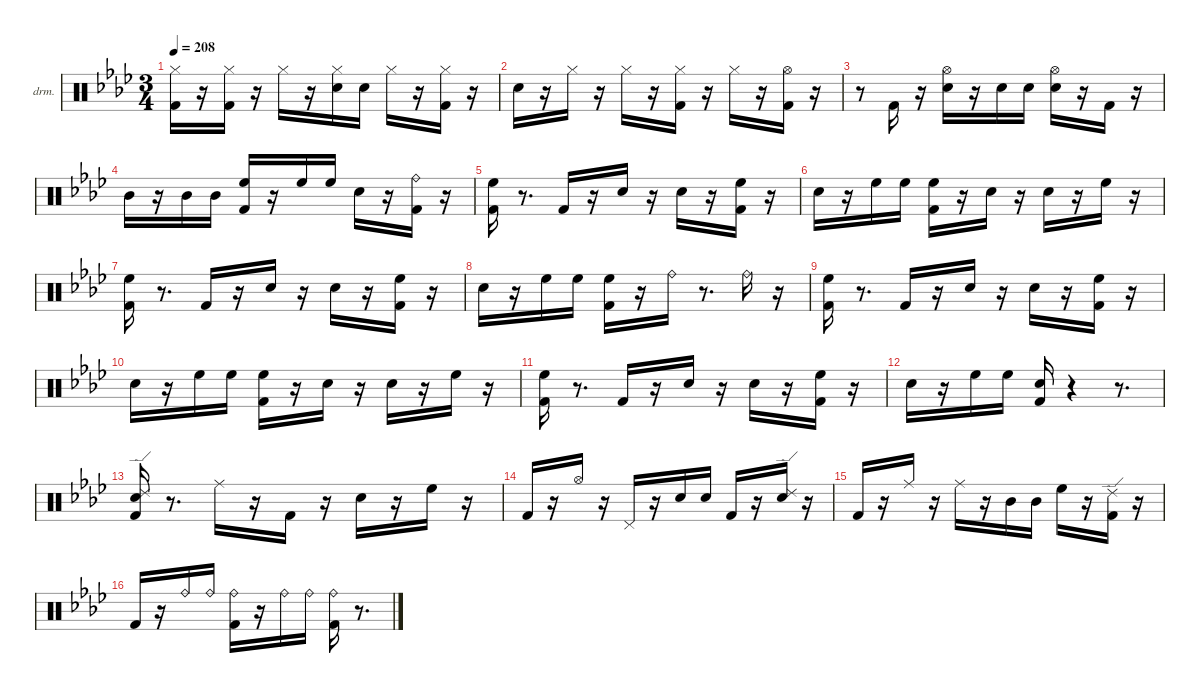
\hideDynamics
\bracketExtendMode nobrackets
\firstSystemTrackNameOrientation horizontal
\otherSystemsTrackNameOrientation horizontal
\track ("EZdrummer 3" "drm.") {instrument percussion}
\staff {score}
\articulation defaults
\ts (3 4)
\tempo 208
\clef neutral
\ks fminor
("Kick (hit) 2"{acc forcenatural} "Hi-Hat (closed)"{acc b}).16{dy ff beam Down} r.16{beam Down} ("Kick (hit) 2"{acc forcenatural} "Hi-Hat (closed)"{acc b}).16{beam Down} r.16{beam Down} "Hi-Hat (closed)"{acc b}.16{dy pp beam Down} r.16{beam Down} ("Snare (hit) 2"{acc forcenatural} "Hi-Hat (closed)"{acc b}).16{dy mf beam Down} "Snare (hit) 2"{acc forcenatural}.16{dy ppp beam Down} "Hi-Hat (closed)"{acc b}.16{dy mf beam Down} r.16{beam Down} ("Kick (hit) 2"{acc forcenatural} "Hi-Hat (closed)"{acc b}).16{dy ff beam Down} r.16{beam Down} |
"Snare (hit) 2"{acc forcenatural}.16{dy fff beam Down} r.16{beam Down} "Hi-Hat (closed)"{acc b}.16{dy mf beam Down} r.16{beam Down} "Hi-Hat (closed)"{acc b}.16{dy fff beam Down} r.16{beam Down} ("Kick (hit) 2"{acc forcenatural} "Hi-Hat (closed)"{acc b}).16{dy ff beam Down} r.16{beam Down} "Hi-Hat (closed)"{acc b}.16{dy fff beam Down} r.16{beam Down} ("Kick (hit) 2"{acc forcenatural} "Hi-Hat (open)"{acc b}).16{dy f beam Down} r.16{beam Down} |
r.8{beam Down} "Kick (hit) 2"{acc forcenatural}.16{dy mf beam Up} r.16{beam Up} ("Snare (hit) 2"{acc forcenatural} "Hi-Hat (open)"{acc b}).16{dy ff beam Down} r.16{beam Down} "Snare (hit) 2"{acc forcenatural}.16{dy pp beam Down} "Snare (hit) 2"{acc forcenatural}.16{dy ppp beam Down} ("Snare (hit) 2"{acc forcenatural} "Hi-Hat (open)"{acc b}).16{dy fff beam Down} r.16{beam Down} "Kick (hit) 2"{acc forcenatural}.16{dy ff beam Up} r.16{beam Up} |
"Mid Tom (hit)"{acc forcenatural}.16{beam Down} r.16{beam Down} "Mid Tom (hit)"{acc forcenatural}.16{beam Up} "Mid Tom (hit)"{acc forcenatural}.16{beam Up} ("Kick (hit) 2"{acc forcenatural} "High Floor Tom (hit)"{acc forcenatural}).16{beam Up} r.16{beam Up} "High Floor Tom (hit)"{acc forcenatural}.16{dy mf beam Down} "High Floor Tom (hit)"{acc forcenatural}.16{dy mp beam Down} "Snare (hit) 2"{acc forcenatural}.16{dy ff beam Down} r.16{beam Down} ("Kick (hit) 2"{acc forcenatural} "Ride (bell)"{acc forcenatural}).16{dy mp beam Down} r.16{beam Down} |
("Kick (hit) 2"{acc forcenatural} "High Floor Tom (hit)"{acc forcenatural}).16{dy fff beam Down} r.8{d beam Down} "Kick (hit) 2"{acc forcenatural}.16{dy f beam Up} r.16{beam Up} "Snare (hit) 2"{acc forcenatural}.16{beam Down} r.16{beam Down} "Snare (hit) 2"{acc forcenatural}.16{dy ppp beam Down} r.16{beam Down} ("Kick (hit) 2"{acc forcenatural} "High Floor Tom (hit)"{acc forcenatural}).16{dy ff beam Down} r.16{beam Down} |
"Snare (hit) 2"{acc forcenatural}.16{beam Down} r.16{beam Down} "High Floor Tom (hit)"{acc forcenatural}.16{dy f beam Down} "High Floor Tom (hit)"{acc forcenatural}.16{dy mp beam Down} ("Kick (hit) 2"{acc forcenatural} "High Floor Tom (hit)"{acc forcenatural}).16{dy ff beam Down} r.16{beam Down} "Snare (hit) 2"{acc forcenatural}.16{dy f beam Down} r.16{beam Down} "Snare (hit) 2"{acc forcenatural}.16{dy ppp beam Down} r.16{beam Down} "High Floor Tom (hit)"{acc forcenatural}.16{dy mf beam Down} r.16{beam Down} |
("Kick (hit) 2"{acc forcenatural} "High Floor Tom (hit)"{acc forcenatural}).16{dy ff beam Down} r.8{d beam Down} "Kick (hit) 2"{acc forcenatural}.16{dy f beam Up} r.16{beam Up} "Snare (hit) 2"{acc forcenatural}.16{beam Down} r.16{beam Down} "Snare (hit) 2"{acc forcenatural}.16{dy ppp beam Down} r.16{beam Down} ("Kick (hit) 2"{acc forcenatural} "High Floor Tom (hit)"{acc forcenatural}).16{dy ff beam Down} r.16{beam Down} |
"Snare (hit) 2"{acc forcenatural}.16{beam Down} r.16{beam Down} "High Floor Tom (hit)"{acc forcenatural}.16{dy f beam Down} "High Floor Tom (hit)"{acc forcenatural}.16{dy mp beam Down} ("Kick (hit) 2"{acc forcenatural} "High Floor Tom (hit)"{acc forcenatural}).16{dy ff beam Down} r.16{beam Down} "Ride (bell)"{acc forcenatural}.16{beam Down} r.8{d beam Down} "Ride (bell)"{acc forcenatural}.16{dy f beam Down} r.16{beam Down} |
("Kick (hit) 2"{acc forcenatural} "High Floor Tom (hit)"{acc forcenatural}).16{dy ff beam Down} r.8{d beam Down} "Kick (hit) 2"{acc forcenatural}.16{dy f beam Up} r.16{beam Up} "Snare (hit) 2"{acc forcenatural}.16{beam Down} r.16{beam Down} "Snare (hit) 2"{acc forcenatural}.16{dy ppp beam Down} r.16{beam Down} ("Kick (hit) 2"{acc forcenatural} "High Floor Tom (hit)"{acc forcenatural}).16{dy ff beam Down} r.16{beam Down} |
"Snare (hit) 2"{acc forcenatural}.16{beam Down} r.16{beam Down} "High Floor Tom (hit)"{acc forcenatural}.16{dy f beam Down} "High Floor Tom (hit)"{acc forcenatural}.16{dy mp beam Down} ("Kick (hit) 2"{acc forcenatural} "High Floor Tom (hit)"{acc forcenatural}).16{dy ff beam Down} r.16{beam Down} "Snare (hit) 2"{acc forcenatural}.16{dy f beam Down} r.16{beam Down} "Snare (hit) 2"{acc forcenatural}.16{dy ppp beam Down} r.16{beam Down} "High Floor Tom (hit)"{acc forcenatural}.16{dy mf beam Down} r.16{beam Down} |
("Kick (hit) 2"{acc forcenatural} "High Floor Tom (hit)"{acc forcenatural}).16{dy ff beam Down} r.8{d beam Down} "Kick (hit) 2"{acc forcenatural}.16{dy f beam Up} r.16{beam Up} "Snare (hit) 2"{acc forcenatural}.16{beam Down} r.16{beam Down} "Snare (hit) 2"{acc forcenatural}.16{dy ppp beam Down} r.16{beam Down} ("Kick (hit) 2"{acc forcenatural} "High Floor Tom (hit)"{acc forcenatural}).16{dy ff beam Down} r.16{beam Down} |
"Snare (hit) 2"{acc forcenatural}.16{beam Down} r.16{beam Down} "High Floor Tom (hit)"{acc forcenatural}.16{dy f beam Down} "High Floor Tom (hit)"{acc forcenatural}.16{dy mp beam Down} ("Kick (hit) 2"{acc forcenatural} "Snare (hit) 2"{acc forcenatural}).16{dy ff beam Up} r.4{beam Up} r.8{d beam Up} |
("Kick (hit) 2"{acc forcenatural} "Snare (hit) 2"{acc forcenatural} "Ride (edge) 2"{acc forcenatural}).16{beam Up} r.8{d beam Up} "Ride (middle)"{acc b}.16{beam Down} r.16{beam Down} "Kick (hit) 2"{acc forcenatural}.16{beam Up} r.16{beam Up} "Snare (hit) 2"{acc forcenatural}.16{beam Down} r.16{beam Down} "High Floor Tom (hit)"{acc forcenatural}.16{beam Down} r.16{beam Down} |
"Kick (hit) 2"{acc forcenatural}.16{beam Up} r.16{beam Up} "Hi-Hat (open)"{acc b}.16{dy fff beam Down} r.16{beam Down} "Pedal Hi-Hat (hit)"{acc b}.16{dy ff beam Up} r.16{beam Up} "Snare (hit) 2"{acc forcenatural}.16{dy f beam Down} "Snare (hit) 2"{acc forcenatural}.16{dy pp beam Down} "Kick (hit) 2"{acc forcenatural}.16{dy ff beam Up} r.16{beam Up} ("Snare (hit) 2"{acc forcenatural} "Ride (edge) 2"{acc forcenatural}).16{beam Down} r.16{beam Down} |
"Kick (hit) 2"{acc forcenatural}.16{dy fff beam Up} r.16{beam Up} "Ride (middle)"{acc b}.16{dy mp beam Down} r.16{beam Down} "Ride (middle)"{acc b}.16{dy fff beam Down} r.16{beam Down} "Mid Tom (hit)"{acc forcenatural}.16{dy ff beam Up} "Mid Tom (hit)"{acc forcenatural}.16{dy mf beam Up} "High Floor Tom (hit)"{acc forcenatural}.16{dy ff beam Down} r.16{beam Down} ("Kick (hit) 2"{acc forcenatural} "Ride (edge) 2"{acc forcenatural}).16{dy mp beam Up} r.16{beam Up} |
"Kick (hit) 2"{acc forcenatural}.16{dy fff beam Up} r.16{beam Up} "Ride (bell)"{acc forcenatural}.16{dy mf beam Down} "Ride (bell)"{acc forcenatural}.16{dy mp beam Down} ("Kick (hit) 2"{acc forcenatural} "Ride (bell)"{acc forcenatural}).16{dy mf beam Down} r.16{beam Down} "Ride (bell)"{acc forcenatural}.16{beam Down} "Ride (bell)"{acc forcenatural}.16{dy mp beam Down} ("Kick (hit) 2"{acc forcenatural} "Ride (bell)"{acc forcenatural}).16{dy f beam Down} r.8{d beam Down}
